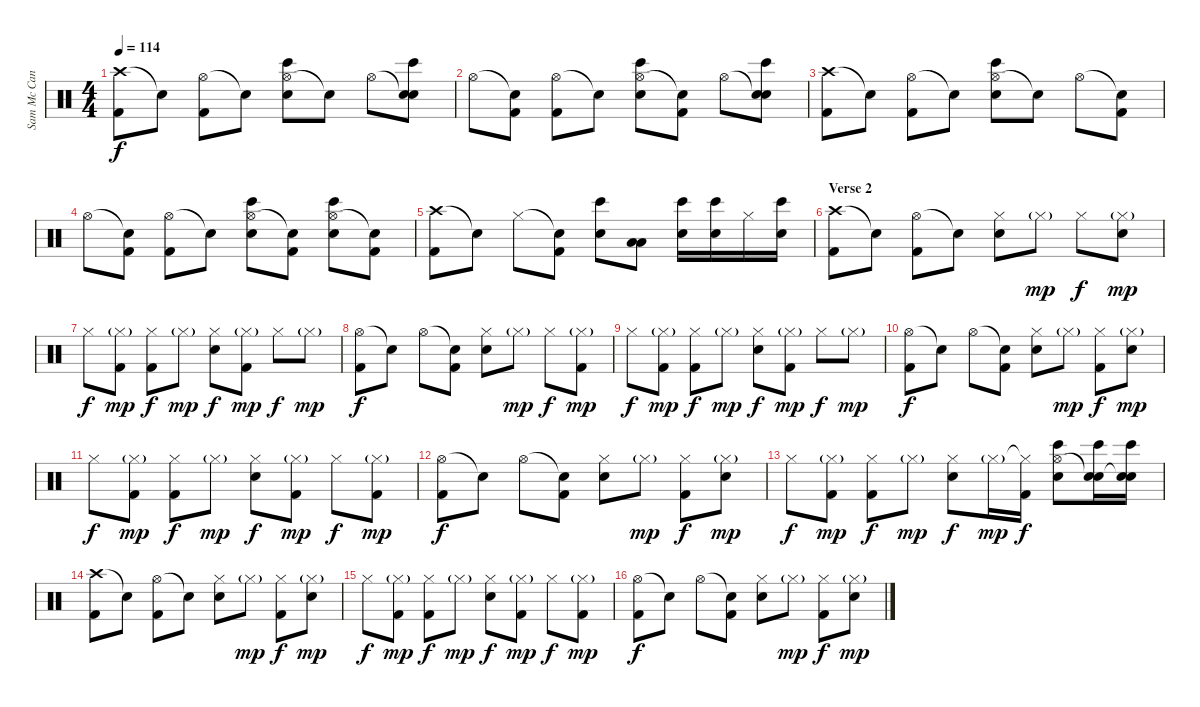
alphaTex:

\track ("Sam Mc Candless (Drums)" "Sam Mc Can") {instrument percussion}
\staff {score}
\articulation defaults
\ts (4 4)
\tempo 114
\clef neutral
\ks c
("Crash high (hit)" "Kick (hit) 2").8{dy f} "Snare (hit)"{t}.8 ("Hi-Hat (open)" "Kick (hit) 2").8 "Snare (hit)"{t}.8 ("Hi-Hat (open)" "Electric Snare (hit)" "Bongo High (hit)").8 "Snare (hit)"{t}.8 "Hi-Hat (open)".8 ("Snare (hit)"{t} "Electric Snare (hit)" "Bongo High (hit)").8 |
"Hi-Hat (open)".8 ("Snare (hit)"{t} "Kick (hit) 2").8 ("Hi-Hat (open)" "Kick (hit) 2").8 "Snare (hit)"{t}.8 ("Hi-Hat (open)" "Electric Snare (hit)" "Bongo High (hit)").8 ("Snare (hit)"{t} "Kick (hit) 2").8 "Hi-Hat (open)".8 ("Snare (hit)"{t} "Electric Snare (hit)" "Bongo High (hit)").8 |
("Crash high (hit)" "Kick (hit) 2").8 "Snare (hit)"{t}.8 ("Hi-Hat (open)" "Kick (hit) 2").8 "Snare (hit)"{t}.8 ("Hi-Hat (open)" "Electric Snare (hit)" "Bongo High (hit)").8 "Snare (hit)"{t}.8 "Hi-Hat (open)".8 ("Snare (hit)"{t} "Kick (hit) 2").8 |
"Hi-Hat (open)".8 ("Snare (hit)"{t} "Kick (hit) 2").8 ("Hi-Hat (open)" "Kick (hit) 2").8 "Snare (hit)"{t}.8 ("Hi-Hat (open)" "Electric Snare (hit)" "Bongo High (hit)").8 ("Snare (hit)"{t} "Kick (hit) 2").8 ("Hi-Hat (open)" "Electric Snare (hit)" "Bongo High (hit)").8 ("Snare (hit)"{t} "Kick (hit) 2").8 |
("Crash high (hit)" "Kick (hit) 2").8 "Snare (hit)"{t}.8 "Hi-Hat (closed)".8 ("Snare (hit)"{t} "Kick (hit) 2").8 ("Electric Snare (hit)" "Bongo High (hit)").8 ("Low Tom (hit)" "Low Tom (hit)").8 ("Electric Snare (hit)" "Bongo High (hit)").16 ("Electric Snare (hit)" "Bongo High (hit)").16 "Hi-Hat (closed)".16 ("Electric Snare (hit)" "Bongo High (hit)").16 |
\section ("" "Verse 2")
("Crash high (hit)" "Kick (hit) 2").8 "Snare (hit)"{t}.8 ("Hi-Hat (open)" "Kick (hit) 2").8 "Snare (hit)"{t}.8 ("Hi-Hat (closed)" "Electric Snare (hit)").8 "Hi-Hat (closed)"{g}.8{dy mp} "Hi-Hat (closed)".8{dy f} ("Hi-Hat (closed)"{g} "Electric Snare (hit)").8{dy mp} |
"Hi-Hat (closed)".8{dy f} ("Hi-Hat (closed)"{g} "Kick (hit) 2").8{dy mp} ("Hi-Hat (closed)" "Kick (hit) 2").8{dy f} "Hi-Hat (closed)"{g}.8{dy mp} ("Hi-Hat (closed)" "Electric Snare (hit)").8{dy f} ("Hi-Hat (closed)"{g} "Kick (hit) 2").8{dy mp} "Hi-Hat (closed)".8{dy f} "Hi-Hat (closed)"{g}.8{dy mp} |
("Hi-Hat (open)" "Kick (hit) 2").8{dy f} "Snare (hit)"{t}.8 "Hi-Hat (open)".8 ("Snare (hit)"{t} "Kick (hit) 2").8 ("Hi-Hat (closed)" "Electric Snare (hit)").8 "Hi-Hat (closed)"{g}.8{dy mp} "Hi-Hat (closed)".8{dy f} ("Hi-Hat (closed)"{g} "Kick (hit) 2").8{dy mp} |
"Hi-Hat (closed)".8{dy f} ("Hi-Hat (closed)"{g} "Kick (hit) 2").8{dy mp} ("Hi-Hat (closed)" "Kick (hit) 2").8{dy f} "Hi-Hat (closed)"{g}.8{dy mp} ("Hi-Hat (closed)" "Electric Snare (hit)").8{dy f} ("Hi-Hat (closed)"{g} "Kick (hit) 2").8{dy mp} "Hi-Hat (closed)".8{dy f} "Hi-Hat (closed)"{g}.8{dy mp} |
("Hi-Hat (open)" "Kick (hit) 2").8{dy f} "Snare (hit)"{t}.8 "Hi-Hat (open)".8 ("Snare (hit)"{t} "Kick (hit) 2").8 ("Hi-Hat (closed)" "Electric Snare (hit)").8 "Hi-Hat (closed)"{g}.8{dy mp} ("Hi-Hat (closed)" "Kick (hit) 2").8{dy f} ("Hi-Hat (closed)"{g} "Electric Snare (hit)").8{dy mp} |
"Hi-Hat (closed)".8{dy f} ("Hi-Hat (closed)"{g} "Kick (hit) 2").8{dy mp} ("Hi-Hat (closed)" "Kick (hit) 2").8{dy f} "Hi-Hat (closed)"{g}.8{dy mp} ("Hi-Hat (closed)" "Electric Snare (hit)").8{dy f} ("Hi-Hat (closed)"{g} "Kick (hit) 2").8{dy mp} "Hi-Hat (closed)".8{dy f} ("Hi-Hat (closed)"{g} "Kick (hit) 2").8{dy mp} |
("Hi-Hat (open)" "Kick (hit) 2").8{dy f} "Snare (hit)"{t}.8 "Hi-Hat (open)".8 ("Snare (hit)"{t} "Kick (hit) 2").8 ("Hi-Hat (closed)" "Electric Snare (hit)").8 "Hi-Hat (closed)"{g}.8{dy mp} ("Hi-Hat (closed)" "Kick (hit) 2").8{dy f} ("Hi-Hat (closed)"{g} "Electric Snare (hit)").8{dy mp} |
"Hi-Hat (closed)".8{dy f} ("Hi-Hat (closed)"{g} "Kick (hit) 2").8{dy mp} ("Hi-Hat (closed)" "Kick (hit) 2").8{dy f} "Hi-Hat (closed)"{g}.8{dy mp} ("Hi-Hat (closed)" "Electric Snare (hit)").8{dy f} "Hi-Hat (closed)"{g}.16{dy mp} ("Hi-Hat (closed)"{t} "Kick (hit) 2").16{dy f} ("Hi-Hat (open)" "Electric Snare (hit)" "Bongo High (hit)").8 ("Snare (hit)"{t} "Electric Snare (hit)" "Bongo High (hit)").16 ("Snare (hit)"{t} "Electric Snare (hit)" "Bongo High (hit)").16 |
("Crash high (hit)" "Kick (hit) 2").8 "Snare (hit)"{t}.8 ("Hi-Hat (open)" "Kick (hit) 2").8 "Snare (hit)"{t}.8 ("Hi-Hat (closed)" "Electric Snare (hit)").8 "Hi-Hat (closed)"{g}.8{dy mp} ("Hi-Hat (closed)" "Kick (hit) 2").8{dy f} ("Hi-Hat (closed)"{g} "Electric Snare (hit)").8{dy mp} |
"Hi-Hat (closed)".8{dy f} ("Hi-Hat (closed)"{g} "Kick (hit) 2").8{dy mp} ("Hi-Hat (closed)" "Kick (hit) 2").8{dy f} "Hi-Hat (closed)"{g}.8{dy mp} ("Hi-Hat (closed)" "Electric Snare (hit)").8{dy f} ("Hi-Hat (closed)"{g} "Kick (hit) 2").8{dy mp} "Hi-Hat (closed)".8{dy f} ("Hi-Hat (closed)"{g} "Kick (hit) 2").8{dy mp} |
("Hi-Hat (open)" "Kick (hit) 2").8{dy f} "Snare (hit)"{t}.8 "Hi-Hat (open)".8 ("Snare (hit)"{t} "Kick (hit) 2").8 ("Hi-Hat (closed)" "Electric Snare (hit)").8 "Hi-Hat (closed)"{g}.8{dy mp} ("Hi-Hat (closed)" "Kick (hit) 2").8{dy f} ("Hi-Hat (closed)"{g} "Electric Snare (hit)").8{dy mp}
